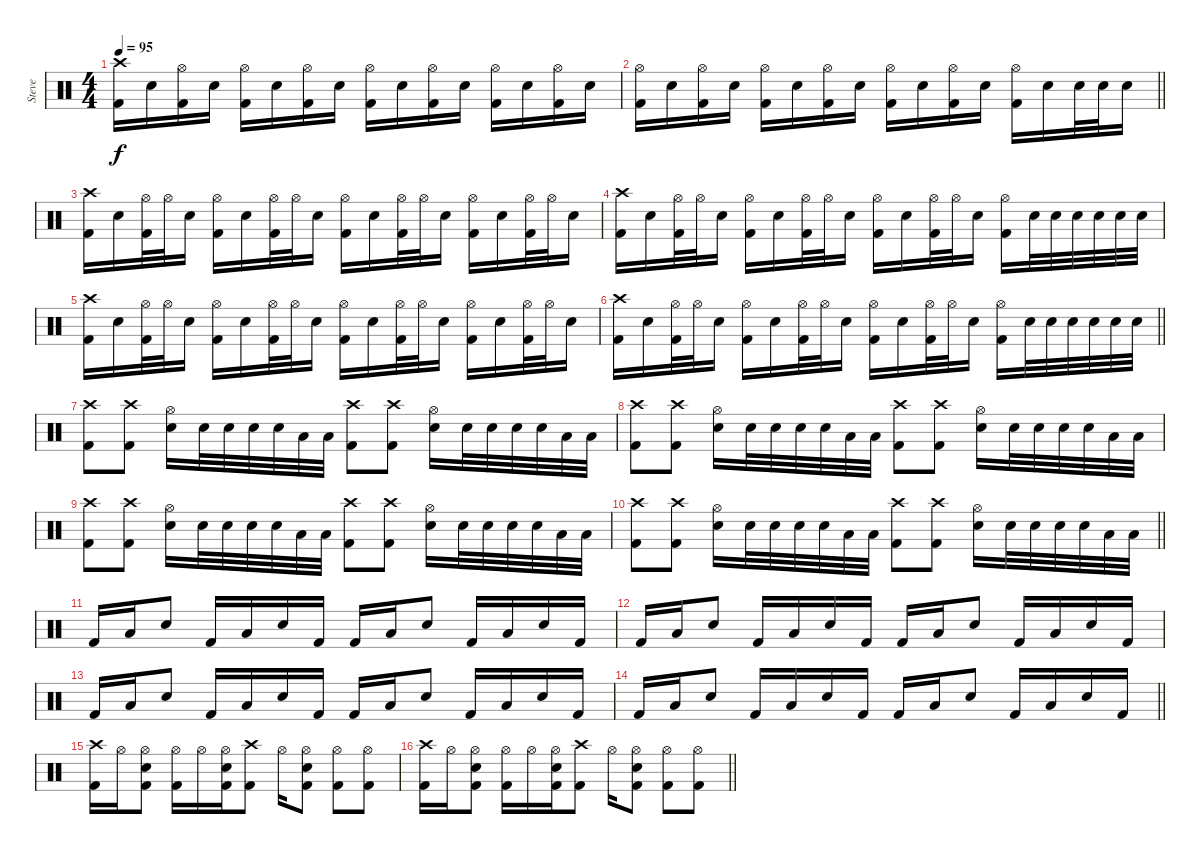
\track ("Steve" "Steve") {instrument percussion}
\staff {score}
\articulation defaults
\ts (4 4)
\tempo 95
\clef neutral
\ks c
("Kick (hit) 2" "Crash high (hit)").16{dy f} "Snare (hit) 2".16 ("Kick (hit) 2" "Hi-Hat (open)").16 "Snare (hit) 2".16 ("Kick (hit) 2" "Hi-Hat (open)").16 "Snare (hit) 2".16 ("Kick (hit) 2" "Hi-Hat (open)").16 "Snare (hit) 2".16 ("Kick (hit) 2" "Hi-Hat (open)").16 "Snare (hit) 2".16 ("Kick (hit) 2" "Hi-Hat (open)").16 "Snare (hit) 2".16 ("Kick (hit) 2" "Hi-Hat (open)").16 "Snare (hit) 2".16 ("Kick (hit) 2" "Hi-Hat (open)").16 "Snare (hit) 2".16 |
\barLineRight lightlight
("Kick (hit) 2" "Hi-Hat (open)").16 "Snare (hit) 2".16 ("Kick (hit) 2" "Hi-Hat (open)").16 "Snare (hit) 2".16 ("Kick (hit) 2" "Hi-Hat (open)").16 "Snare (hit) 2".16 ("Kick (hit) 2" "Hi-Hat (open)").16 "Snare (hit) 2".16 ("Kick (hit) 2" "Hi-Hat (open)").16 "Snare (hit) 2".16 ("Kick (hit) 2" "Hi-Hat (open)").16 "Snare (hit) 2".16 ("Kick (hit) 2" "Hi-Hat (open)").16 "Snare (hit) 2".16 "Snare (hit) 2".32 "Snare (hit) 2".32 "Snare (hit) 2".16 |
("Kick (hit) 2" "Crash high (hit)").16 "Snare (hit) 2".16 ("Kick (hit) 2" "Hi-Hat (open)").32 "Hi-Hat (open)".32 "Snare (hit) 2".16 ("Kick (hit) 2" "Hi-Hat (open)").16 "Snare (hit) 2".16 ("Kick (hit) 2" "Hi-Hat (open)").32 "Hi-Hat (open)".32 "Snare (hit) 2".16 ("Kick (hit) 2" "Hi-Hat (open)").16 "Snare (hit) 2".16 ("Kick (hit) 2" "Hi-Hat (open)").32 "Hi-Hat (open)".32 "Snare (hit) 2".16 ("Kick (hit) 2" "Hi-Hat (open)").16 "Snare (hit) 2".16 ("Kick (hit) 2" "Hi-Hat (open)").32 "Hi-Hat (open)".32 "Snare (hit) 2".16 |
("Kick (hit) 2" "Crash high (hit)").16 "Snare (hit) 2".16 ("Kick (hit) 2" "Hi-Hat (open)").32 "Hi-Hat (open)".32 "Snare (hit) 2".16 ("Kick (hit) 2" "Hi-Hat (open)").16 "Snare (hit) 2".16 ("Kick (hit) 2" "Hi-Hat (open)").32 "Hi-Hat (open)".32 "Snare (hit) 2".16 ("Kick (hit) 2" "Hi-Hat (open)").16 "Snare (hit) 2".16 ("Kick (hit) 2" "Hi-Hat (open)").32 "Hi-Hat (open)".32 "Snare (hit) 2".16 ("Kick (hit) 2" "Hi-Hat (open)").16 "Snare (hit) 2".32 "Snare (hit) 2".32 "Snare (hit) 2".32 "Snare (hit) 2".32 "Snare (hit) 2".32 "Snare (hit) 2".32 |
("Kick (hit) 2" "Crash high (hit)").16 "Snare (hit) 2".16 ("Kick (hit) 2" "Hi-Hat (open)").32 "Hi-Hat (open)".32 "Snare (hit) 2".16 ("Kick (hit) 2" "Hi-Hat (open)").16 "Snare (hit) 2".16 ("Kick (hit) 2" "Hi-Hat (open)").32 "Hi-Hat (open)".32 "Snare (hit) 2".16 ("Kick (hit) 2" "Hi-Hat (open)").16 "Snare (hit) 2".16 ("Kick (hit) 2" "Hi-Hat (open)").32 "Hi-Hat (open)".32 "Snare (hit) 2".16 ("Kick (hit) 2" "Hi-Hat (open)").16 "Snare (hit) 2".16 ("Kick (hit) 2" "Hi-Hat (open)").32 "Hi-Hat (open)".32 "Snare (hit) 2".16 |
\barLineRight lightlight
("Kick (hit) 2" "Crash high (hit)").16 "Snare (hit) 2".16 ("Kick (hit) 2" "Hi-Hat (open)").32 "Hi-Hat (open)".32 "Snare (hit) 2".16 ("Kick (hit) 2" "Hi-Hat (open)").16 "Snare (hit) 2".16 ("Kick (hit) 2" "Hi-Hat (open)").32 "Hi-Hat (open)".32 "Snare (hit) 2".16 ("Kick (hit) 2" "Hi-Hat (open)").16 "Snare (hit) 2".16 ("Kick (hit) 2" "Hi-Hat (open)").32 "Hi-Hat (open)".32 "Snare (hit) 2".16 ("Kick (hit) 2" "Hi-Hat (open)").16 "Snare (hit) 2".32 "Snare (hit) 2".32 "Snare (hit) 2".32 "Snare (hit) 2".32 "Snare (hit) 2".32 "Snare (hit) 2".32 |
("Kick (hit) 2" "Crash high (hit)").8 ("Kick (hit) 2" "Crash high (hit)").8 ("Snare (hit) 2" "Hi-Hat (open)").16 "Snare (hit) 2".32 "Snare (hit) 2".32 "Snare (hit) 2".32 "Snare (hit) 2".32 "Low Floor Tom (hit)".32 "Low Floor Tom (hit)".32 ("Kick (hit) 2" "Crash high (hit)").8 ("Kick (hit) 2" "Crash high (hit)").8 ("Snare (hit) 2" "Hi-Hat (open)").16 "Snare (hit) 2".32 "Snare (hit) 2".32 "Snare (hit) 2".32 "Snare (hit) 2".32 "Low Floor Tom (hit)".32 "Low Floor Tom (hit)".32 |
("Kick (hit) 2" "Crash high (hit)").8 ("Kick (hit) 2" "Crash high (hit)").8 ("Snare (hit) 2" "Hi-Hat (open)").16 "Snare (hit) 2".32 "Snare (hit) 2".32 "Snare (hit) 2".32 "Snare (hit) 2".32 "Low Floor Tom (hit)".32 "Low Floor Tom (hit)".32 ("Kick (hit) 2" "Crash high (hit)").8 ("Kick (hit) 2" "Crash high (hit)").8 ("Snare (hit) 2" "Hi-Hat (open)").16 "Snare (hit) 2".32 "Snare (hit) 2".32 "Snare (hit) 2".32 "Snare (hit) 2".32 "Low Floor Tom (hit)".32 "Low Floor Tom (hit)".32 |
("Kick (hit) 2" "Crash high (hit)").8 ("Kick (hit) 2" "Crash high (hit)").8 ("Snare (hit) 2" "Hi-Hat (open)").16 "Snare (hit) 2".32 "Snare (hit) 2".32 "Snare (hit) 2".32 "Snare (hit) 2".32 "Low Floor Tom (hit)".32 "Low Floor Tom (hit)".32 ("Kick (hit) 2" "Crash high (hit)").8 ("Kick (hit) 2" "Crash high (hit)").8 ("Snare (hit) 2" "Hi-Hat (open)").16 "Snare (hit) 2".32 "Snare (hit) 2".32 "Snare (hit) 2".32 "Snare (hit) 2".32 "Low Floor Tom (hit)".32 "Low Floor Tom (hit)".32 |
\barLineRight lightlight
("Kick (hit) 2" "Crash high (hit)").8 ("Kick (hit) 2" "Crash high (hit)").8 ("Snare (hit) 2" "Hi-Hat (open)").16 "Snare (hit) 2".32 "Snare (hit) 2".32 "Snare (hit) 2".32 "Snare (hit) 2".32 "Low Floor Tom (hit)".32 "Low Floor Tom (hit)".32 ("Kick (hit) 2" "Crash high (hit)").8 ("Kick (hit) 2" "Crash high (hit)").8 ("Snare (hit) 2" "Hi-Hat (open)").16 "Snare (hit) 2".32 "Snare (hit) 2".32 "Snare (hit) 2".32 "Snare (hit) 2".32 "Low Floor Tom (hit)".32 "Low Floor Tom (hit)".32 |
"Kick (hit) 2".16 "Low Floor Tom (hit)".16 "Snare (hit) 2".8 "Kick (hit) 2".16 "Low Floor Tom (hit)".16 "Snare (hit) 2".16 "Kick (hit) 2".16 "Kick (hit) 2".16 "Low Floor Tom (hit)".16 "Snare (hit) 2".8 "Kick (hit) 2".16 "Low Floor Tom (hit)".16 "Snare (hit) 2".16 "Kick (hit) 2".16 |
"Kick (hit) 2".16 "Low Floor Tom (hit)".16 "Snare (hit) 2".8 "Kick (hit) 2".16 "Low Floor Tom (hit)".16 "Snare (hit) 2".16 "Kick (hit) 2".16 "Kick (hit) 2".16 "Low Floor Tom (hit)".16 "Snare (hit) 2".8 "Kick (hit) 2".16 "Low Floor Tom (hit)".16 "Snare (hit) 2".16 "Kick (hit) 2".16 |
"Kick (hit) 2".16 "Low Floor Tom (hit)".16 "Snare (hit) 2".8 "Kick (hit) 2".16 "Low Floor Tom (hit)".16 "Snare (hit) 2".16 "Kick (hit) 2".16 "Kick (hit) 2".16 "Low Floor Tom (hit)".16 "Snare (hit) 2".8 "Kick (hit) 2".16 "Low Floor Tom (hit)".16 "Snare (hit) 2".16 "Kick (hit) 2".16 |
\barLineRight lightlight "Kick (hit) 2".16 "Low Floor Tom (hit)".16 "Snare (hit) 2".8 "Kick (hit) 2".16 "Low Floor Tom (hit)".16 "Snare (hit) 2".16 "Kick (hit) 2".16 "Kick (hit) 2".16 "Low Floor Tom (hit)".16 "Snare (hit) 2".8 "Kick (hit) 2".16 "Low Floor Tom (hit)".16 "Snare (hit) 2".16 "Kick (hit) 2".16
|
("Kick (hit) 2" "Crash high (hit)").16 "Hi-Hat (open)".16 ("Kick (hit) 2" "Snare (hit) 2" "Hi-Hat (open)").8 ("Kick (hit) 2" "Hi-Hat (open)").16 "Hi-Hat (open)".16 ("Kick (hit) 2" "Snare (hit) 2" "Hi-Hat (open)").16 ("Kick (hit) 2" "Crash high (hit)").8 "Hi-Hat (open)".16 ("Kick (hit) 2" "Snare (hit) 2" "Hi-Hat (open)").8 ("Kick (hit) 2" "Hi-Hat (open)").8 ("Kick (hit) 2" "Hi-Hat (open)").8 |
\barLineRight lightlight
("Kick (hit) 2" "Crash high (hit)").16 "Hi-Hat (open)".16 ("Kick (hit) 2" "Snare (hit) 2" "Hi-Hat (open)").8 ("Kick (hit) 2" "Hi-Hat (open)").16 "Hi-Hat (open)".16 ("Kick (hit) 2" "Snare (hit) 2" "Hi-Hat (open)").16 ("Kick (hit) 2" "Crash high (hit)").8 "Hi-Hat (open)".16 ("Kick (hit) 2" "Snare (hit) 2" "Hi-Hat (open)").8 ("Kick (hit) 2" "Hi-Hat (open)").8 ("Kick (hit) 2" "Hi-Hat (open)").8
